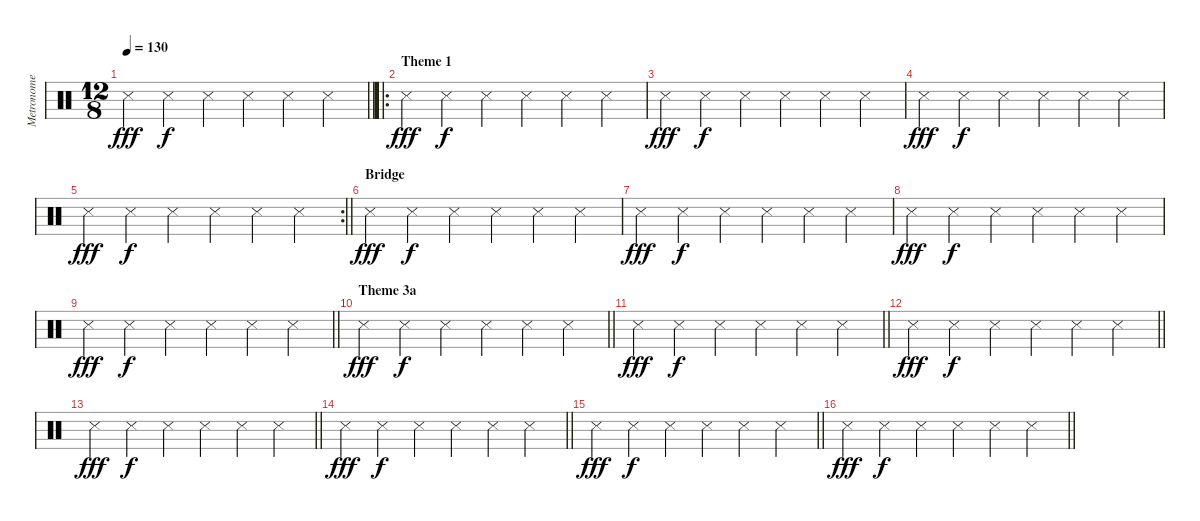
\track ("Metronome" "Metronome") {instrument percussion}
\staff {score}
\articulation defaults
\ts (12 8)
\tempo 130
\clef neutral
\barLineRight lightlight
\ks c "Snare (side stick) 3".4{dy fff} "Snare (side stick) 3".4{dy f} "Snare (side stick) 3".4 "Snare (side stick) 3".4 "Snare (side stick) 3".4 "Snare (side stick) 3".4
|
\ro
\section ("" "Theme 1")
"Snare (side stick) 3".4{dy fff} "Snare (side stick) 3".4{dy f} "Snare (side stick) 3".4 "Snare (side stick) 3".4 "Snare (side stick) 3".4 "Snare (side stick) 3".4 |
"Snare (side stick) 3".4{dy fff} "Snare (side stick) 3".4{dy f} "Snare (side stick) 3".4 "Snare (side stick) 3".4 "Snare (side stick) 3".4 "Snare (side stick) 3".4 |
"Snare (side stick) 3".4{dy fff} "Snare (side stick) 3".4{dy f} "Snare (side stick) 3".4 "Snare (side stick) 3".4 "Snare (side stick) 3".4 "Snare (side stick) 3".4 |
\rc 2
\barLineRight lightlight "Snare (side stick) 3".4{dy fff} "Snare (side stick) 3".4{dy f} "Snare (side stick) 3".4 "Snare (side stick) 3".4 "Snare (side stick) 3".4 "Snare (side stick) 3".4
|
\section ("" "Bridge")
"Snare (side stick) 3".4{dy fff} "Snare (side stick) 3".4{dy f} "Snare (side stick) 3".4 "Snare (side stick) 3".4 "Snare (side stick) 3".4 "Snare (side stick) 3".4 |
"Snare (side stick) 3".4{dy fff} "Snare (side stick) 3".4{dy f} "Snare (side stick) 3".4 "Snare (side stick) 3".4 "Snare (side stick) 3".4 "Snare (side stick) 3".4 |
"Snare (side stick) 3".4{dy fff} "Snare (side stick) 3".4{dy f} "Snare (side stick) 3".4 "Snare (side stick) 3".4 "Snare (side stick) 3".4 "Snare (side stick) 3".4 |
\barLineRight lightlight "Snare (side stick) 3".4{dy fff} "Snare (side stick) 3".4{dy f} "Snare (side stick) 3".4 "Snare (side stick) 3".4 "Snare (side stick) 3".4 "Snare (side stick) 3".4
|
\section ("" "Theme 3a")
\barLineRight lightlight "Snare (side stick) 3".4{dy fff} "Snare (side stick) 3".4{dy f} "Snare (side stick) 3".4 "Snare (side stick) 3".4 "Snare (side stick) 3".4 "Snare (side stick) 3".4
|
\barLineRight lightlight "Snare (side stick) 3".4{dy fff} "Snare (side stick) 3".4{dy f} "Snare (side stick) 3".4 "Snare (side stick) 3".4 "Snare (side stick) 3".4 "Snare (side stick) 3".4
|
\barLineRight lightlight "Snare (side stick) 3".4{dy fff} "Snare (side stick) 3".4{dy f} "Snare (side stick) 3".4 "Snare (side stick) 3".4 "Snare (side stick) 3".4 "Snare (side stick) 3".4
|
\barLineRight lightlight "Snare (side stick) 3".4{dy fff} "Snare (side stick) 3".4{dy f} "Snare (side stick) 3".4 "Snare (side stick) 3".4 "Snare (side stick) 3".4 "Snare (side stick) 3".4
|
\barLineRight lightlight "Snare (side stick) 3".4{dy fff} "Snare (side stick) 3".4{dy f} "Snare (side stick) 3".4 "Snare (side stick) 3".4 "Snare (side stick) 3".4 "Snare (side stick) 3".4
|
\barLineRight lightlight "Snare (side stick) 3".4{dy fff} "Snare (side stick) 3".4{dy f} "Snare (side stick) 3".4 "Snare (side stick) 3".4 "Snare (side stick) 3".4 "Snare (side stick) 3".4
|
\barLineRight lightlight "Snare (side stick) 3".4{dy fff} "Snare (side stick) 3".4{dy f} "Snare (side stick) 3".4 "Snare (side stick) 3".4 "Snare (side stick) 3".4 "Snare (side stick) 3".4
